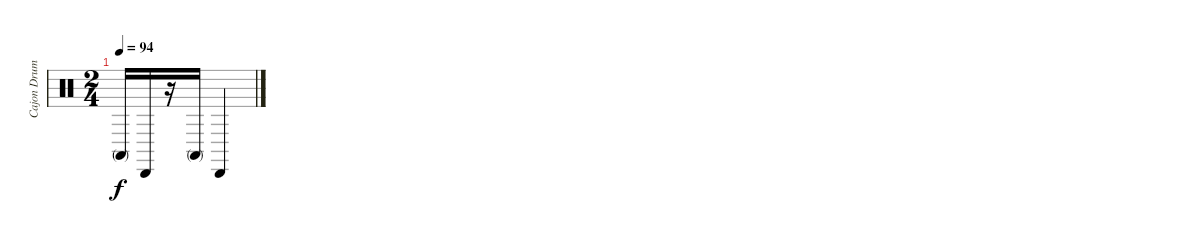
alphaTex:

\track ("Cajon Drum" "Cajon Drum") {instrument percussion}
\staff {score}
\articulation defaults
\ts (2 4)
\tempo 94
\clef neutral
\ks c "Conga high (mute)".16{dy f} "Cabasa (hit)".16
r.16 "Conga high (mute)".16 "Cabasa (hit)".4
